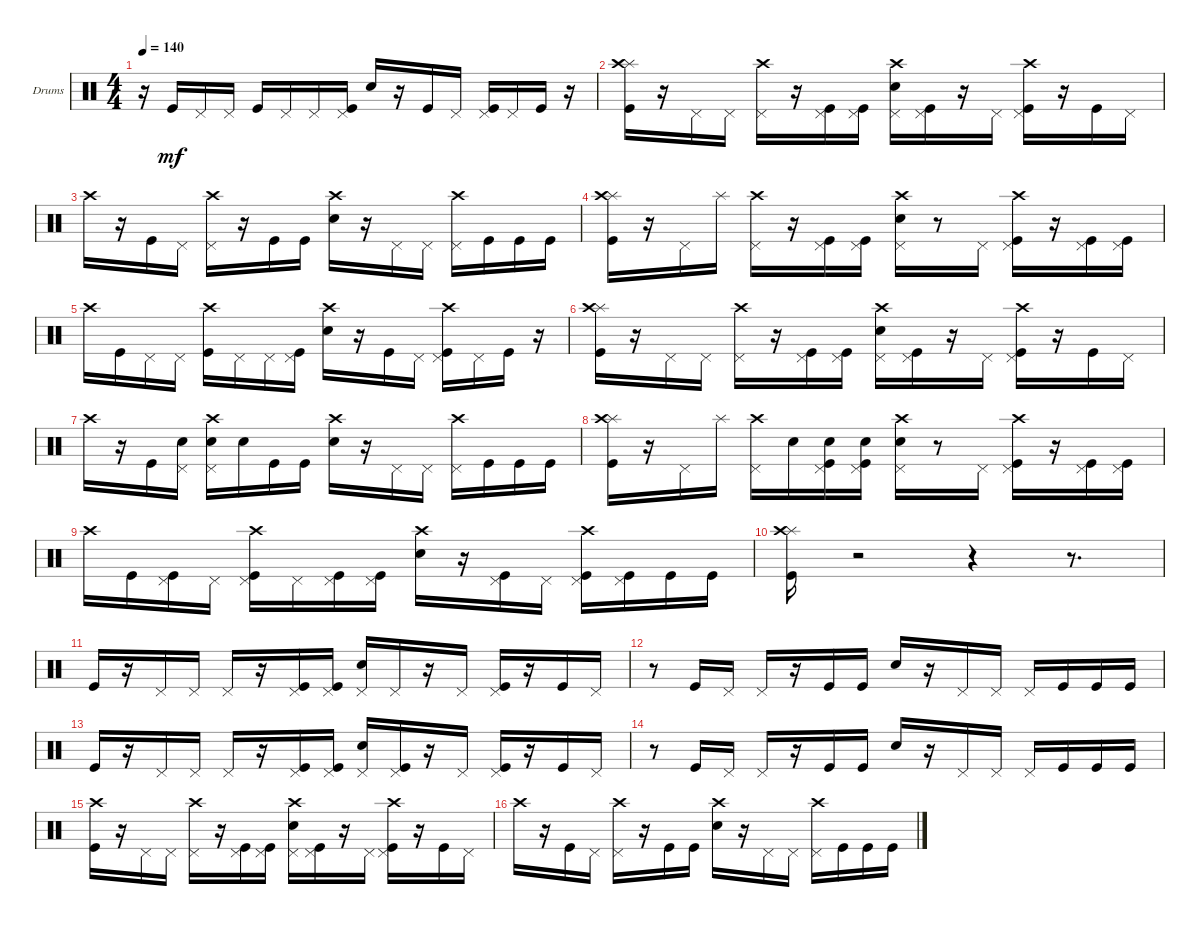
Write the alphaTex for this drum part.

\bracketExtendMode groupsimilarinstruments
\firstSystemTrackNameOrientation horizontal
\otherSystemsTrackNameOrientation horizontal
\track ("Drumkit" "Drums") {instrument percussion}
\staff {score}
\articulation defaults
\ts (4 4)
\tempo 140
\clef neutral
\scale
0.333333
\ks c
r.16{dy mf} "Kick (hit)".16 "Pedal Hi-Hat (hit)".16 "Pedal Hi-Hat (hit)".16 "Kick (hit)".16 "Pedal Hi-Hat (hit)".16 "Pedal Hi-Hat (hit)".16 ("Kick (hit)" "Pedal Hi-Hat (hit)").16 "Snare (hit) 2".16 r.16 "Kick (hit)".16 "Pedal Hi-Hat (hit)".16 ("Kick (hit)" "Pedal Hi-Hat (hit)").16 "Pedal Hi-Hat (hit)".16 "Kick (hit)".16 r.16 |
\scale
0.333333 ("Kick (hit)" "Splash (hit)" "Crash high (hit)").16 r.16 "Pedal Hi-Hat (hit)".16 "Pedal Hi-Hat (hit)".16 ("Pedal Hi-Hat (hit)" "Crash high (hit)").16 r.16 ("Kick (hit)" "Pedal Hi-Hat (hit)").16 ("Kick (hit)" "Pedal Hi-Hat (hit)").16 ("Snare (hit) 2" "Pedal Hi-Hat (hit)" "Crash high (hit)").16 ("Kick (hit)" "Pedal Hi-Hat (hit)").16 r.16 "Pedal Hi-Hat (hit)".16 ("Kick (hit)" "Pedal Hi-Hat (hit)" "Crash high (hit)").16 r.16 "Kick (hit)".16 "Pedal Hi-Hat (hit)".16 |
\scale
0.333333 "Crash high (hit)".16 r.16 "Kick (hit)".16 "Pedal Hi-Hat (hit)".16 ("Pedal Hi-Hat (hit)" "Crash high (hit)").16 r.16 "Kick (hit)".16 "Kick (hit)".16 ("Snare (hit) 2" "Crash high (hit)").16 r.16 "Pedal Hi-Hat (hit)".16 "Pedal Hi-Hat (hit)".16 ("Pedal Hi-Hat (hit)" "Crash high (hit)").16 "Kick (hit)".16 "Kick (hit)".16 "Kick (hit)".16 |
\scale
0.333333 ("Kick (hit)" "Splash (hit)" "Crash high (hit)").16 r.16 "Pedal Hi-Hat (hit)".16 "Splash (hit)".16 ("Pedal Hi-Hat (hit)" "Crash high (hit)").16 r.16 ("Kick (hit)" "Pedal Hi-Hat (hit)").16 ("Kick (hit)" "Pedal Hi-Hat (hit)").16 ("Snare (hit) 2" "Pedal Hi-Hat (hit)" "Crash high (hit)").16 r.8 "Pedal Hi-Hat (hit)".16 ("Kick (hit)" "Pedal Hi-Hat (hit)" "Crash high (hit)").16 r.16 ("Kick (hit)" "Pedal Hi-Hat (hit)").16 ("Kick (hit)" "Pedal Hi-Hat (hit)").16 |
\scale
0.333333 "Crash high (hit)".16 "Kick (hit)".16 "Pedal Hi-Hat (hit)".16 "Pedal Hi-Hat (hit)".16 ("Kick (hit)" "Crash high (hit)").16 "Pedal Hi-Hat (hit)".16 "Pedal Hi-Hat (hit)".16 ("Kick (hit)" "Pedal Hi-Hat (hit)").16 ("Snare (hit) 2" "Crash high (hit)").16 r.16 "Kick (hit)".16 "Pedal Hi-Hat (hit)".16 ("Kick (hit)" "Pedal Hi-Hat (hit)" "Crash high (hit)").16 "Pedal Hi-Hat (hit)".16 "Kick (hit)".16 r.16 |
\scale
0.333333 ("Kick (hit)" "Splash (hit)" "Crash high (hit)").16 r.16 "Pedal Hi-Hat (hit)".16 "Pedal Hi-Hat (hit)".16 ("Pedal Hi-Hat (hit)" "Crash high (hit)").16 r.16 ("Kick (hit)" "Pedal Hi-Hat (hit)").16 ("Kick (hit)" "Pedal Hi-Hat (hit)").16 ("Snare (hit) 2" "Pedal Hi-Hat (hit)" "Crash high (hit)").16 ("Kick (hit)" "Pedal Hi-Hat (hit)").16 r.16 "Pedal Hi-Hat (hit)".16 ("Kick (hit)" "Pedal Hi-Hat (hit)" "Crash high (hit)").16 r.16 "Kick (hit)".16 "Pedal Hi-Hat (hit)".16 |
\scale
0.333333 "Crash high (hit)".16 r.16 "Kick (hit)".16 ("Snare (hit) 2" "Pedal Hi-Hat (hit)").16 ("Snare (hit) 2" "Pedal Hi-Hat (hit)" "Crash high (hit)").16 "Snare (hit) 2".16 "Kick (hit)".16 "Kick (hit)".16 ("Snare (hit) 2" "Crash high (hit)").16 r.16 "Pedal Hi-Hat (hit)".16 "Pedal Hi-Hat (hit)".16 ("Pedal Hi-Hat (hit)" "Crash high (hit)").16 "Kick (hit)".16 "Kick (hit)".16 "Kick (hit)".16 |
\scale
0.333333 ("Kick (hit)" "Splash (hit)" "Crash high (hit)").16 r.16 "Pedal Hi-Hat (hit)".16 "Splash (hit)".16 ("Pedal Hi-Hat (hit)" "Crash high (hit)").16 "Snare (hit) 2".16 ("Kick (hit)" "Snare (hit) 2" "Pedal Hi-Hat (hit)").16 ("Kick (hit)" "Snare (hit) 2" "Pedal Hi-Hat (hit)").16 ("Snare (hit) 2" "Pedal Hi-Hat (hit)" "Crash high (hit)").16 r.8 "Pedal Hi-Hat (hit)".16 ("Kick (hit)" "Pedal Hi-Hat (hit)" "Crash high (hit)").16 r.16 ("Kick (hit)" "Pedal Hi-Hat (hit)").16 ("Kick (hit)" "Pedal Hi-Hat (hit)").16 |
\scale
0.333333 "Crash high (hit)".16 "Kick (hit)".16 ("Pedal Hi-Hat (hit)" "Kick (hit)").16 "Pedal Hi-Hat (hit)".16 ("Crash high (hit)" "Kick (hit)" "Pedal Hi-Hat (hit)").16 "Pedal Hi-Hat (hit)".16 ("Kick (hit)" "Pedal Hi-Hat (hit)").16 ("Pedal Hi-Hat (hit)" "Kick (hit)").16 ("Snare (hit) 2" "Crash high (hit)").16 r.16 ("Kick (hit)" "Pedal Hi-Hat (hit)").16 "Pedal Hi-Hat (hit)".16 ("Crash high (hit)" "Pedal Hi-Hat (hit)" "Kick (hit)").16 ("Kick (hit)" "Pedal Hi-Hat (hit)").16 "Kick (hit)".16 "Kick (hit)".16 |
\scale
0.333333 ("Splash (hit)" "Crash high (hit)" "Kick (hit)").16 r.2 r.4 r.8{d} |
\scale
0.333333 "Kick (hit)".16 r.16 "Pedal Hi-Hat (hit)".16 "Pedal Hi-Hat (hit)".16 "Pedal Hi-Hat (hit)".16 r.16 ("Kick (hit)" "Pedal Hi-Hat (hit)").16 ("Kick (hit)" "Pedal Hi-Hat (hit)").16 ("Snare (hit) 2" "Pedal Hi-Hat (hit)").16 "Pedal Hi-Hat (hit)".16 r.16 "Pedal Hi-Hat (hit)".16 ("Kick (hit)" "Pedal Hi-Hat (hit)").16 r.16 "Kick (hit)".16 "Pedal Hi-Hat (hit)".16 |
\scale
0.333333 r.8 "Kick (hit)".16 "Pedal Hi-Hat (hit)".16 "Pedal Hi-Hat (hit)".16 r.16 "Kick (hit)".16 "Kick (hit)".16 "Snare (hit) 2".16 r.16 "Pedal Hi-Hat (hit)".16 "Pedal Hi-Hat (hit)".16 "Pedal Hi-Hat (hit)".16 "Kick (hit)".16 "Kick (hit)".16 "Kick (hit)".16 |
\scale
0.333333 "Kick (hit)".16 r.16 "Pedal Hi-Hat (hit)".16 "Pedal Hi-Hat (hit)".16 "Pedal Hi-Hat (hit)".16 r.16 ("Pedal Hi-Hat (hit)" "Kick (hit)").16 ("Kick (hit)" "Pedal Hi-Hat (hit)").16 ("Snare (hit) 2" "Pedal Hi-Hat (hit)").16 ("Pedal Hi-Hat (hit)" "Kick (hit)").16 r.16 "Pedal Hi-Hat (hit)".16 ("Kick (hit)" "Pedal Hi-Hat (hit)").16 r.16 "Kick (hit)".16 "Pedal Hi-Hat (hit)".16 |
\scale
0.333333 r.8 "Kick (hit)".16 "Pedal Hi-Hat (hit)".16 "Pedal Hi-Hat (hit)".16 r.16 "Kick (hit)".16 "Kick (hit)".16 "Snare (hit) 2".16 r.16 "Pedal Hi-Hat (hit)".16 "Pedal Hi-Hat (hit)".16 "Pedal Hi-Hat (hit)".16 "Kick (hit)".16 "Kick (hit)".16 "Kick (hit)".16 |
\scale
0.333333 ("Kick (hit)" "Crash high (hit)").16 r.16 "Pedal Hi-Hat (hit)".16 "Pedal Hi-Hat (hit)".16 ("Pedal Hi-Hat (hit)" "Crash high (hit)").16 r.16 ("Pedal Hi-Hat (hit)" "Kick (hit)").16 ("Kick (hit)" "Pedal Hi-Hat (hit)").16 ("Crash high (hit)" "Snare (hit) 2" "Pedal Hi-Hat (hit)").16 ("Pedal Hi-Hat (hit)" "Kick (hit)").16 r.16 "Pedal Hi-Hat (hit)".16 ("Pedal Hi-Hat (hit)" "Kick (hit)" "Crash high (hit)").16 r.16 "Kick (hit)".16 "Pedal Hi-Hat (hit)".16 |
\scale
0.333333 "Crash high (hit)".16 r.16 "Kick (hit)".16 "Pedal Hi-Hat (hit)".16 ("Crash high (hit)" "Pedal Hi-Hat (hit)").16 r.16 "Kick (hit)".16 "Kick (hit)".16 ("Crash high (hit)" "Snare (hit) 2").16 r.16 "Pedal Hi-Hat (hit)".16 "Pedal Hi-Hat (hit)".16 ("Crash high (hit)" "Pedal Hi-Hat (hit)").16 "Kick (hit)".16 "Kick (hit)".16 "Kick (hit)".16
